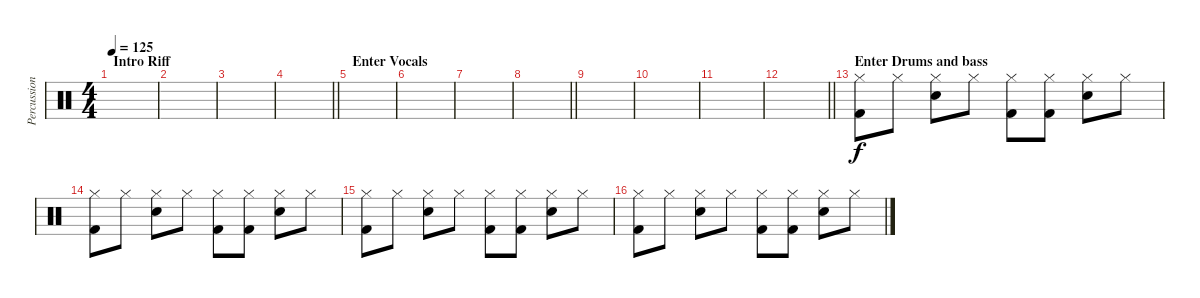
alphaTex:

\track ("Percussion" "Percussion") {instrument percussion}
\staff {score}
\articulation defaults
\ts (4 4)
\section ("" "Intro Riff")
\tempo 125
\clef neutral
\ks c
|
|
|
\barLineRight lightlight
|
\section ("" "Enter Vocals")
|
|
|
\barLineRight lightlight
|
|
|
|
\barLineRight lightlight
|
\section ("" "Enter Drums and bass")
("Hi-Hat (closed)" "Kick (hit) 2").8 "Hi-Hat (closed)".8 ("Hi-Hat (closed)" "Electric Snare (hit)").8 "Hi-Hat (closed)".8 ("Hi-Hat (closed)" "Kick (hit) 2").8 ("Hi-Hat (closed)" "Kick (hit) 2").8 ("Hi-Hat (closed)" "Electric Snare (hit)").8 "Hi-Hat (closed)".8 |
("Hi-Hat (closed)" "Kick (hit) 2").8 "Hi-Hat (closed)".8 ("Hi-Hat (closed)" "Electric Snare (hit)").8 "Hi-Hat (closed)".8 ("Hi-Hat (closed)" "Kick (hit) 2").8 ("Hi-Hat (closed)" "Kick (hit) 2").8 ("Hi-Hat (closed)" "Electric Snare (hit)").8 "Hi-Hat (closed)".8 |
("Hi-Hat (closed)" "Kick (hit) 2").8 "Hi-Hat (closed)".8 ("Hi-Hat (closed)" "Electric Snare (hit)").8 "Hi-Hat (closed)".8 ("Hi-Hat (closed)" "Kick (hit) 2").8 ("Hi-Hat (closed)" "Kick (hit) 2").8 ("Hi-Hat (closed)" "Electric Snare (hit)").8 "Hi-Hat (closed)".8 |
("Hi-Hat (closed)" "Kick (hit) 2").8 "Hi-Hat (closed)".8 ("Hi-Hat (closed)" "Electric Snare (hit)").8 "Hi-Hat (closed)".8 ("Hi-Hat (closed)" "Kick (hit) 2").8 ("Hi-Hat (closed)" "Kick (hit) 2").8 ("Hi-Hat (closed)" "Electric Snare (hit)").8 "Hi-Hat (closed)".8
